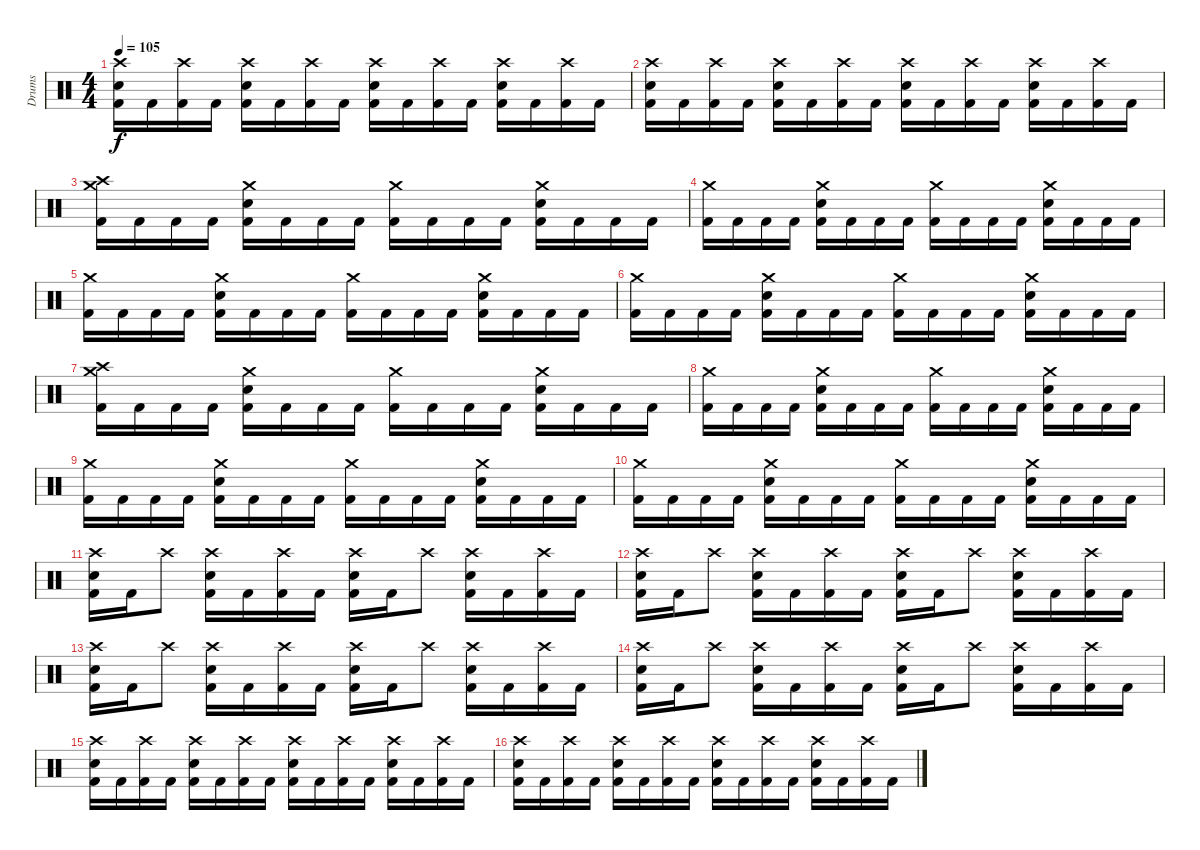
\track ("Drums" "Drums") {instrument percussion}
\staff {score}
\articulation defaults
\ts (4 4)
\tempo 105
\clef neutral
\ks c
("Crash high (hit)" "Snare (hit) 2" "Kick (hit) 2").16{dy f} "Kick (hit) 2".16 ("Crash high (hit)" "Kick (hit) 2").16 "Kick (hit) 2".16 ("Crash high (hit)" "Snare (hit) 2" "Kick (hit) 2").16 "Kick (hit) 2".16 ("Crash high (hit)" "Kick (hit) 2").16 "Kick (hit) 2".16 ("Crash high (hit)" "Snare (hit) 2" "Kick (hit) 2").16 "Kick (hit) 2".16 ("Crash high (hit)" "Kick (hit) 2").16 "Kick (hit) 2".16 ("Crash high (hit)" "Snare (hit) 2" "Kick (hit) 2").16 "Kick (hit) 2".16 ("Crash high (hit)" "Kick (hit) 2").16 "Kick (hit) 2".16 |
("Crash high (hit)" "Snare (hit) 2" "Kick (hit) 2").16 "Kick (hit) 2".16 ("Crash high (hit)" "Kick (hit) 2").16 "Kick (hit) 2".16 ("Crash high (hit)" "Snare (hit) 2" "Kick (hit) 2").16 "Kick (hit) 2".16 ("Crash high (hit)" "Kick (hit) 2").16 "Kick (hit) 2".16 ("Crash high (hit)" "Snare (hit) 2" "Kick (hit) 2").16 "Kick (hit) 2".16 ("Crash high (hit)" "Kick (hit) 2").16 "Kick (hit) 2".16 ("Crash high (hit)" "Snare (hit) 2" "Kick (hit) 2").16 "Kick (hit) 2".16 ("Crash high (hit)" "Kick (hit) 2").16 "Kick (hit) 2".16 |
("Crash medium (hit)" "Crash high (hit)" "Kick (hit) 2").16 "Kick (hit) 2".16 "Kick (hit) 2".16 "Kick (hit) 2".16 ("Crash medium (hit)" "Snare (hit) 2" "Kick (hit) 2").16 "Kick (hit) 2".16 "Kick (hit) 2".16 "Kick (hit) 2".16 ("Crash medium (hit)" "Kick (hit) 2").16 "Kick (hit) 2".16 "Kick (hit) 2".16 "Kick (hit) 2".16 ("Crash medium (hit)" "Snare (hit) 2" "Kick (hit) 2").16 "Kick (hit) 2".16 "Kick (hit) 2".16 "Kick (hit) 2".16 |
("Crash medium (hit)" "Kick (hit) 2").16 "Kick (hit) 2".16 "Kick (hit) 2".16 "Kick (hit) 2".16 ("Crash medium (hit)" "Snare (hit) 2" "Kick (hit) 2").16 "Kick (hit) 2".16 "Kick (hit) 2".16 "Kick (hit) 2".16 ("Crash medium (hit)" "Kick (hit) 2").16 "Kick (hit) 2".16 "Kick (hit) 2".16 "Kick (hit) 2".16 ("Crash medium (hit)" "Snare (hit) 2" "Kick (hit) 2").16 "Kick (hit) 2".16 "Kick (hit) 2".16 "Kick (hit) 2".16 |
("Crash medium (hit)" "Kick (hit) 2").16 "Kick (hit) 2".16 "Kick (hit) 2".16 "Kick (hit) 2".16 ("Crash medium (hit)" "Snare (hit) 2" "Kick (hit) 2").16 "Kick (hit) 2".16 "Kick (hit) 2".16 "Kick (hit) 2".16 ("Crash medium (hit)" "Kick (hit) 2").16 "Kick (hit) 2".16 "Kick (hit) 2".16 "Kick (hit) 2".16 ("Crash medium (hit)" "Snare (hit) 2" "Kick (hit) 2").16 "Kick (hit) 2".16 "Kick (hit) 2".16 "Kick (hit) 2".16 |
("Crash medium (hit)" "Kick (hit) 2").16 "Kick (hit) 2".16 "Kick (hit) 2".16 "Kick (hit) 2".16 ("Crash medium (hit)" "Snare (hit) 2" "Kick (hit) 2").16 "Kick (hit) 2".16 "Kick (hit) 2".16 "Kick (hit) 2".16 ("Crash medium (hit)" "Kick (hit) 2").16 "Kick (hit) 2".16 "Kick (hit) 2".16 "Kick (hit) 2".16 ("Crash medium (hit)" "Snare (hit) 2" "Kick (hit) 2").16 "Kick (hit) 2".16 "Kick (hit) 2".16 "Kick (hit) 2".16 |
("Crash medium (hit)" "Crash high (hit)" "Kick (hit) 2").16 "Kick (hit) 2".16 "Kick (hit) 2".16 "Kick (hit) 2".16 ("Crash medium (hit)" "Snare (hit) 2" "Kick (hit) 2").16 "Kick (hit) 2".16 "Kick (hit) 2".16 "Kick (hit) 2".16 ("Crash medium (hit)" "Kick (hit) 2").16 "Kick (hit) 2".16 "Kick (hit) 2".16 "Kick (hit) 2".16 ("Crash medium (hit)" "Snare (hit) 2" "Kick (hit) 2").16 "Kick (hit) 2".16 "Kick (hit) 2".16 "Kick (hit) 2".16 |
("Crash medium (hit)" "Kick (hit) 2").16 "Kick (hit) 2".16 "Kick (hit) 2".16 "Kick (hit) 2".16 ("Crash medium (hit)" "Snare (hit) 2" "Kick (hit) 2").16 "Kick (hit) 2".16 "Kick (hit) 2".16 "Kick (hit) 2".16 ("Crash medium (hit)" "Kick (hit) 2").16 "Kick (hit) 2".16 "Kick (hit) 2".16 "Kick (hit) 2".16 ("Crash medium (hit)" "Snare (hit) 2" "Kick (hit) 2").16 "Kick (hit) 2".16 "Kick (hit) 2".16 "Kick (hit) 2".16 |
("Crash medium (hit)" "Kick (hit) 2").16 "Kick (hit) 2".16 "Kick (hit) 2".16 "Kick (hit) 2".16 ("Crash medium (hit)" "Snare (hit) 2" "Kick (hit) 2").16 "Kick (hit) 2".16 "Kick (hit) 2".16 "Kick (hit) 2".16 ("Crash medium (hit)" "Kick (hit) 2").16 "Kick (hit) 2".16 "Kick (hit) 2".16 "Kick (hit) 2".16 ("Crash medium (hit)" "Snare (hit) 2" "Kick (hit) 2").16 "Kick (hit) 2".16 "Kick (hit) 2".16 "Kick (hit) 2".16 |
("Crash medium (hit)" "Kick (hit) 2").16 "Kick (hit) 2".16 "Kick (hit) 2".16 "Kick (hit) 2".16 ("Crash medium (hit)" "Snare (hit) 2" "Kick (hit) 2").16 "Kick (hit) 2".16 "Kick (hit) 2".16 "Kick (hit) 2".16 ("Crash medium (hit)" "Kick (hit) 2").16 "Kick (hit) 2".16 "Kick (hit) 2".16 "Kick (hit) 2".16 ("Crash medium (hit)" "Snare (hit) 2" "Kick (hit) 2").16 "Kick (hit) 2".16 "Kick (hit) 2".16 "Kick (hit) 2".16 |
("Crash high (hit)" "Snare (hit) 2" "Kick (hit) 2").16 "Kick (hit) 2".16 "Crash high (hit)".8 ("Crash high (hit)" "Snare (hit) 2" "Kick (hit) 2").16 "Kick (hit) 2".16 ("Crash high (hit)" "Kick (hit) 2").16 "Kick (hit) 2".16 ("Crash high (hit)" "Snare (hit) 2" "Kick (hit) 2").16 "Kick (hit) 2".16 "Crash high (hit)".8 ("Crash high (hit)" "Snare (hit) 2" "Kick (hit) 2").16 "Kick (hit) 2".16 ("Crash high (hit)" "Kick (hit) 2").16 "Kick (hit) 2".16 |
("Crash high (hit)" "Snare (hit) 2" "Kick (hit) 2").16 "Kick (hit) 2".16 "Crash high (hit)".8 ("Crash high (hit)" "Snare (hit) 2" "Kick (hit) 2").16 "Kick (hit) 2".16 ("Crash high (hit)" "Kick (hit) 2").16 "Kick (hit) 2".16 ("Crash high (hit)" "Snare (hit) 2" "Kick (hit) 2").16 "Kick (hit) 2".16 "Crash high (hit)".8 ("Crash high (hit)" "Snare (hit) 2" "Kick (hit) 2").16 "Kick (hit) 2".16 ("Crash high (hit)" "Kick (hit) 2").16 "Kick (hit) 2".16 |
("Crash high (hit)" "Snare (hit) 2" "Kick (hit) 2").16 "Kick (hit) 2".16 "Crash high (hit)".8 ("Crash high (hit)" "Snare (hit) 2" "Kick (hit) 2").16 "Kick (hit) 2".16 ("Crash high (hit)" "Kick (hit) 2").16 "Kick (hit) 2".16 ("Crash high (hit)" "Snare (hit) 2" "Kick (hit) 2").16 "Kick (hit) 2".16 "Crash high (hit)".8 ("Crash high (hit)" "Snare (hit) 2" "Kick (hit) 2").16 "Kick (hit) 2".16 ("Crash high (hit)" "Kick (hit) 2").16 "Kick (hit) 2".16 |
("Crash high (hit)" "Snare (hit) 2" "Kick (hit) 2").16 "Kick (hit) 2".16 "Crash high (hit)".8 ("Crash high (hit)" "Snare (hit) 2" "Kick (hit) 2").16 "Kick (hit) 2".16 ("Crash high (hit)" "Kick (hit) 2").16 "Kick (hit) 2".16 ("Crash high (hit)" "Snare (hit) 2" "Kick (hit) 2").16 "Kick (hit) 2".16 "Crash high (hit)".8 ("Crash high (hit)" "Snare (hit) 2" "Kick (hit) 2").16 "Kick (hit) 2".16 ("Crash high (hit)" "Kick (hit) 2").16 "Kick (hit) 2".16 |
("Crash high (hit)" "Snare (hit) 2" "Kick (hit) 2").16 "Kick (hit) 2".16 ("Crash high (hit)" "Kick (hit) 2").16 "Kick (hit) 2".16 ("Crash high (hit)" "Snare (hit) 2" "Kick (hit) 2").16 "Kick (hit) 2".16 ("Crash high (hit)" "Kick (hit) 2").16 "Kick (hit) 2".16 ("Crash high (hit)" "Snare (hit) 2" "Kick (hit) 2").16 "Kick (hit) 2".16 ("Crash high (hit)" "Kick (hit) 2").16 "Kick (hit) 2".16 ("Crash high (hit)" "Snare (hit) 2" "Kick (hit) 2").16 "Kick (hit) 2".16 ("Crash high (hit)" "Kick (hit) 2").16 "Kick (hit) 2".16 |
("Crash high (hit)" "Snare (hit) 2" "Kick (hit) 2").16 "Kick (hit) 2".16 ("Crash high (hit)" "Kick (hit) 2").16 "Kick (hit) 2".16 ("Crash high (hit)" "Snare (hit) 2" "Kick (hit) 2").16 "Kick (hit) 2".16 ("Crash high (hit)" "Kick (hit) 2").16 "Kick (hit) 2".16 ("Crash high (hit)" "Snare (hit) 2" "Kick (hit) 2").16 "Kick (hit) 2".16 ("Crash high (hit)" "Kick (hit) 2").16 "Kick (hit) 2".16 ("Crash high (hit)" "Snare (hit) 2" "Kick (hit) 2").16 "Kick (hit) 2".16 ("Crash high (hit)" "Kick (hit) 2").16 "Kick (hit) 2".16
